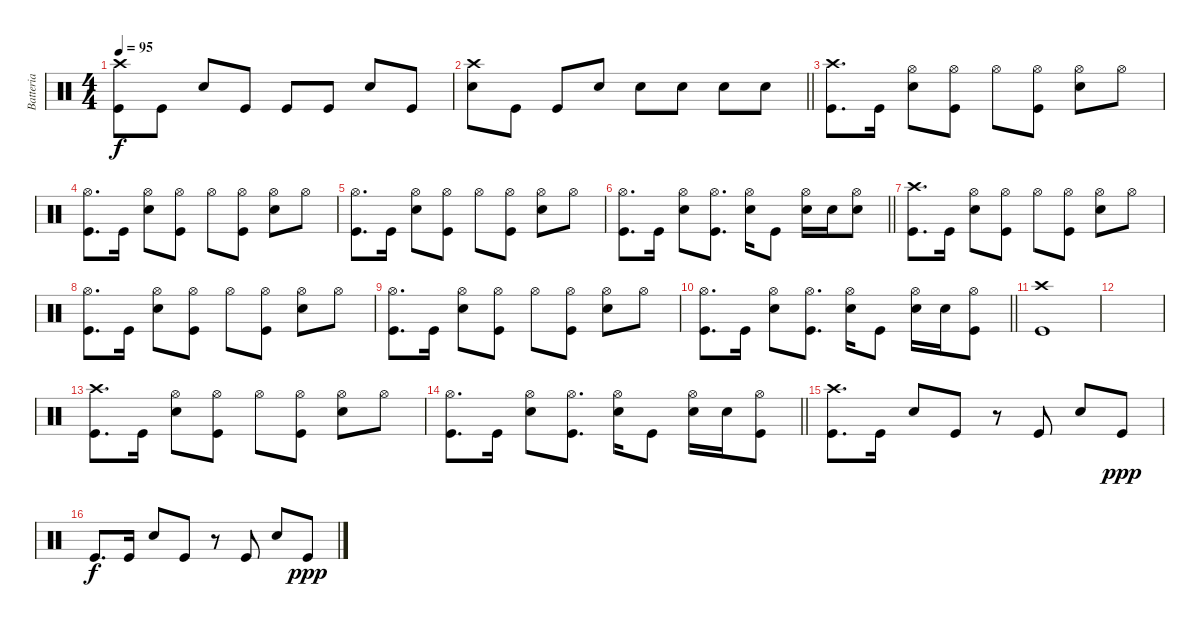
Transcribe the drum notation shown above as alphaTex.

\track ("Batteria" "Batteria") {instrument percussion}
\staff {score}
\articulation defaults
\ts (4 4)
\tempo 95
\clef neutral
\ks c
("Kick (hit)" "Crash high (hit)").8{dy f} "Kick (hit)".8 "Snare (hit) 2".8 "Kick (hit)".8 "Kick (hit)".8 "Kick (hit)".8 "Snare (hit) 2".8 "Kick (hit)".8 |
\barLineRight lightlight
("Snare (hit) 2" "Crash high (hit)").8 "Kick (hit)".8 "Kick (hit)".8 "Snare (hit) 2".8 "Snare (hit) 2".8 "Snare (hit) 2".8 "Snare (hit) 2".8 "Snare (hit) 2".8 |
("Kick (hit)" "Crash high (hit)").8{d} "Kick (hit)".16 ("Snare (hit) 2" "Hi-Hat (open)").8 ("Kick (hit)" "Hi-Hat (open)").8 "Hi-Hat (open)".8 ("Kick (hit)" "Hi-Hat (open)").8 ("Snare (hit) 2" "Hi-Hat (open)").8 "Hi-Hat (open)".8 |
("Kick (hit)" "Hi-Hat (open)").8{d} "Kick (hit)".16 ("Snare (hit) 2" "Hi-Hat (open)").8 ("Kick (hit)" "Hi-Hat (open)").8 "Hi-Hat (open)".8 ("Kick (hit)" "Hi-Hat (open)").8 ("Snare (hit) 2" "Hi-Hat (open)").8 "Hi-Hat (open)".8 |
("Kick (hit)" "Hi-Hat (open)").8{d} "Kick (hit)".16 ("Snare (hit) 2" "Hi-Hat (open)").8 ("Kick (hit)" "Hi-Hat (open)").8 "Hi-Hat (open)".8 ("Kick (hit)" "Hi-Hat (open)").8 ("Snare (hit) 2" "Hi-Hat (open)").8 "Hi-Hat (open)".8 |
\barLineRight lightlight
("Kick (hit)" "Hi-Hat (open)").8{d} "Kick (hit)".16 ("Snare (hit) 2" "Hi-Hat (open)").8 ("Kick (hit)" "Hi-Hat (open)").8{d} ("Snare (hit) 2" "Hi-Hat (open)").16 "Kick (hit)".8 ("Snare (hit) 2" "Hi-Hat (open)").16 "Snare (hit) 2".16 ("Snare (hit) 2" "Hi-Hat (open)").8 |
("Kick (hit)" "Crash high (hit)").8{d} "Kick (hit)".16 ("Snare (hit) 2" "Hi-Hat (open)").8 ("Kick (hit)" "Hi-Hat (open)").8 "Hi-Hat (open)".8 ("Kick (hit)" "Hi-Hat (open)").8 ("Snare (hit) 2" "Hi-Hat (open)").8 "Hi-Hat (open)".8 |
("Kick (hit)" "Hi-Hat (open)").8{d} "Kick (hit)".16 ("Snare (hit) 2" "Hi-Hat (open)").8 ("Kick (hit)" "Hi-Hat (open)").8 "Hi-Hat (open)".8 ("Kick (hit)" "Hi-Hat (open)").8 ("Snare (hit) 2" "Hi-Hat (open)").8 "Hi-Hat (open)".8 |
("Kick (hit)" "Hi-Hat (open)").8{d} "Kick (hit)".16 ("Snare (hit) 2" "Hi-Hat (open)").8 ("Kick (hit)" "Hi-Hat (open)").8 "Hi-Hat (open)".8 ("Kick (hit)" "Hi-Hat (open)").8 ("Snare (hit) 2" "Hi-Hat (open)").8 "Hi-Hat (open)".8 |
\barLineRight lightlight
("Kick (hit)" "Hi-Hat (open)").8{d} "Kick (hit)".16 ("Snare (hit) 2" "Hi-Hat (open)").8 ("Kick (hit)" "Hi-Hat (open)").8{d} ("Snare (hit) 2" "Hi-Hat (open)").16 "Kick (hit)".8 ("Snare (hit) 2" "Hi-Hat (open)").16 "Snare (hit) 2".16 ("Kick (hit)" "Hi-Hat (open)").8 |
("Kick (hit)" "Crash high (hit)").1 |
|
("Kick (hit)" "Crash high (hit)").8{d} "Kick (hit)".16 ("Snare (hit) 2" "Hi-Hat (open)").8 ("Kick (hit)" "Hi-Hat (open)").8 "Hi-Hat (open)".8 ("Kick (hit)" "Hi-Hat (open)").8 ("Snare (hit) 2" "Hi-Hat (open)").8 "Hi-Hat (open)".8 |
\barLineRight lightlight
("Kick (hit)" "Hi-Hat (open)").8{d} "Kick (hit)".16 ("Snare (hit) 2" "Hi-Hat (open)").8 ("Kick (hit)" "Hi-Hat (open)").8{d} ("Snare (hit) 2" "Hi-Hat (open)").16 "Kick (hit)".8 ("Snare (hit) 2" "Hi-Hat (open)").16 "Snare (hit) 2".16 ("Kick (hit)" "Hi-Hat (open)").8 |
("Kick (hit)" "Crash high (hit)").8{d} "Kick (hit)".16 "Snare (hit) 2".8 "Kick (hit)".8 r.8 "Kick (hit)".8 "Snare (hit) 2".8 "Kick (hit)".8{dy ppp} |
"Kick (hit)".8{d dy f} "Kick (hit)".16 "Snare (hit) 2".8 "Kick (hit)".8 r.8 "Kick (hit)".8 "Snare (hit) 2".8 "Kick (hit)".8{dy ppp}
